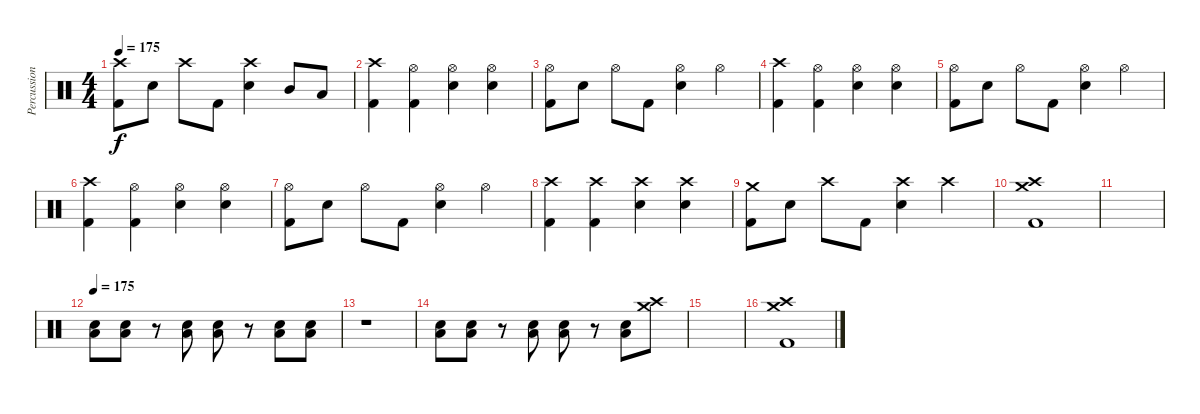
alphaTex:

\track ("Percussion" "Percussion") {instrument percussion}
\staff {score}
\articulation defaults
\ts (4 4)
\tempo 175
\clef neutral
\ks c
("Kick (hit) 2" "Crash high (hit)").8{dy f} "Electric Snare (hit)".8 "Crash high (hit)".8 "Kick (hit) 2".8 ("Electric Snare (hit)" "Crash high (hit)").4 "Mid Tom (hit)".8 "Low Tom (hit)".8 |
("Kick (hit) 2" "Crash high (hit)").4 ("Kick (hit) 2" "Hi-Hat (open)").4 ("Electric Snare (hit)" "Hi-Hat (open)").4 ("Electric Snare (hit)" "Hi-Hat (open)").4 |
("Kick (hit) 2" "Hi-Hat (open)").8 "Electric Snare (hit)".8 "Hi-Hat (open)".8 "Kick (hit) 2".8 ("Electric Snare (hit)" "Hi-Hat (open)").4 "Hi-Hat (open)".4 |
("Kick (hit) 2" "Crash high (hit)").4 ("Kick (hit) 2" "Hi-Hat (open)").4 ("Electric Snare (hit)" "Hi-Hat (open)").4 ("Electric Snare (hit)" "Hi-Hat (open)").4 |
("Kick (hit) 2" "Hi-Hat (open)").8 "Electric Snare (hit)".8 "Hi-Hat (open)".8 "Kick (hit) 2".8 ("Electric Snare (hit)" "Hi-Hat (open)").4 "Hi-Hat (open)".4 |
("Kick (hit) 2" "Crash high (hit)").4 ("Kick (hit) 2" "Hi-Hat (open)").4 ("Electric Snare (hit)" "Hi-Hat (open)").4 ("Electric Snare (hit)" "Hi-Hat (open)").4 |
("Kick (hit) 2" "Hi-Hat (open)").8 "Electric Snare (hit)".8 "Hi-Hat (open)".8 "Kick (hit) 2".8 ("Electric Snare (hit)" "Hi-Hat (open)").4 "Hi-Hat (open)".4 |
("Kick (hit) 2" "Crash high (hit)").4 ("Kick (hit) 2" "Crash high (hit)").4 ("Electric Snare (hit)" "Crash high (hit)").4 ("Electric Snare (hit)" "Crash high (hit)").4 |
("Kick (hit) 2" "Crash medium (hit)").8 "Electric Snare (hit)".8 "Crash high (hit)".8 "Kick (hit) 2".8 ("Electric Snare (hit)" "Crash high (hit)").4 "Crash high (hit)".4 |
("Crash high (hit)" "Crash medium (hit)" "Kick (hit) 2").1 |
|
\tempo 175
("Electric Snare (hit)" "Low Floor Tom (hit)").8 ("Electric Snare (hit)" "Low Floor Tom (hit)").8 r.8 ("Electric Snare (hit)" "Low Floor Tom (hit)").8 ("Electric Snare (hit)" "Low Floor Tom (hit)").8 r.8 ("Electric Snare (hit)" "Low Floor Tom (hit)").8 ("Electric Snare (hit)" "Low Floor Tom (hit)").8 |
r.1 |
("Electric Snare (hit)" "Low Floor Tom (hit)").8 ("Electric Snare (hit)" "Low Floor Tom (hit)").8 r.8 ("Electric Snare (hit)" "Low Floor Tom (hit)").8 ("Electric Snare (hit)" "Low Floor Tom (hit)").8 r.8 ("Electric Snare (hit)" "Low Floor Tom (hit)").8 ("Crash high (hit)" "Crash medium (hit)").8 |
|
("Kick (hit) 2" "Crash high (hit)" "Crash medium (hit)").1
